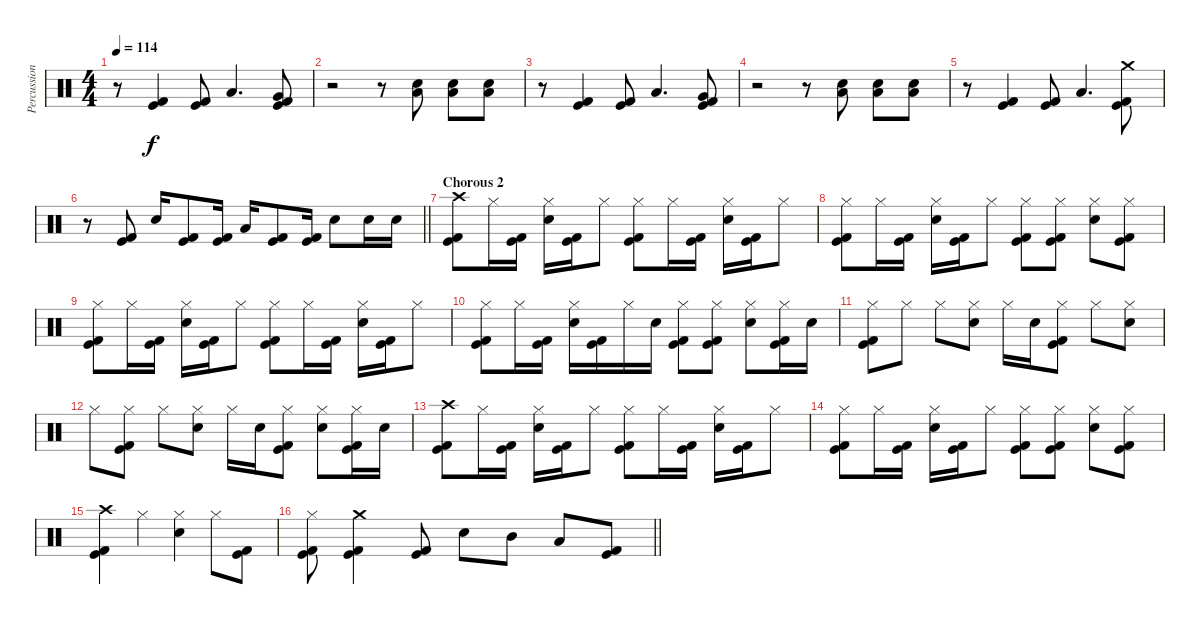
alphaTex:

\track ("Percussion" "Percussion") {instrument percussion}
\staff {score}
\articulation defaults
\ts (4 4)
\tempo 114
\clef neutral
\ks c
r.8{dy f} ("Kick (hit)" "Kick (hit) 2").4 ("Kick (hit)" "Kick (hit) 2").8 "Low Tom (hit)".4{d} ("Very Low Tom (hit)" "Kick (hit)" "Kick (hit) 2").8 |
r.2 r.8 ("Electric Snare (hit)" "Low Floor Tom (hit)").8 ("Electric Snare (hit)" "Low Floor Tom (hit)").8 ("Electric Snare (hit)" "Low Floor Tom (hit)").8 |
r.8 ("Kick (hit)" "Kick (hit) 2").4 ("Kick (hit)" "Kick (hit) 2").8 "Low Tom (hit)".4{d} ("Very Low Tom (hit)" "Kick (hit)" "Kick (hit) 2").8 |
r.2 r.8 ("Electric Snare (hit)" "Low Floor Tom (hit)").8 ("Electric Snare (hit)" "Low Floor Tom (hit)").8 ("Electric Snare (hit)" "Low Floor Tom (hit)").8 |
r.8 ("Kick (hit)" "Kick (hit) 2").4 ("Kick (hit)" "Kick (hit) 2").8 "Low Tom (hit)".4{d} ("Crash medium (hit)" "Kick (hit)" "Kick (hit) 2").8 |
\barLineRight lightlight
r.8 ("Kick (hit)" "Kick (hit) 2").8 "Electric Snare (hit)".16 ("Kick (hit)" "Kick (hit) 2").8 ("Kick (hit)" "Kick (hit) 2").16 "Low Tom (hit)".16 ("Kick (hit)" "Kick (hit) 2").8 ("Kick (hit)" "Kick (hit) 2").16 "Electric Snare (hit)".8 "Electric Snare (hit)".16 "Electric Snare (hit)".16 |
\section ("" "Chorous 2")
("Crash high (hit)" "Kick (hit)" "Kick (hit) 2").8 "Hi-Hat (closed)".16 ("Kick (hit)" "Kick (hit) 2").16 ("Hi-Hat (closed)" "Electric Snare (hit)").16 ("Kick (hit)" "Kick (hit) 2").16 "Hi-Hat (closed)".8 ("Hi-Hat (closed)" "Kick (hit)" "Kick (hit) 2").8 "Hi-Hat (closed)".16 ("Kick (hit)" "Kick (hit) 2").16 ("Hi-Hat (closed)" "Electric Snare (hit)").16 ("Kick (hit)" "Kick (hit) 2").16 "Hi-Hat (closed)".8 |
("Hi-Hat (closed)" "Kick (hit)" "Kick (hit) 2").8 "Hi-Hat (closed)".16 ("Kick (hit)" "Kick (hit) 2").16 ("Hi-Hat (closed)" "Electric Snare (hit)").16 ("Kick (hit)" "Kick (hit) 2").16 "Hi-Hat (closed)".8 ("Hi-Hat (closed)" "Kick (hit)" "Kick (hit) 2").8 ("Hi-Hat (closed)" "Kick (hit)" "Kick (hit) 2").8 ("Hi-Hat (closed)" "Electric Snare (hit)").8 ("Hi-Hat (closed)" "Kick (hit)" "Kick (hit) 2").8 |
("Hi-Hat (closed)" "Kick (hit)" "Kick (hit) 2").8 "Hi-Hat (closed)".16 ("Kick (hit)" "Kick (hit) 2").16 ("Hi-Hat (closed)" "Electric Snare (hit)").16 ("Kick (hit)" "Kick (hit) 2").16 "Hi-Hat (closed)".8 ("Hi-Hat (closed)" "Kick (hit)" "Kick (hit) 2").8 "Hi-Hat (closed)".16 ("Kick (hit)" "Kick (hit) 2").16 ("Hi-Hat (closed)" "Electric Snare (hit)").16 ("Kick (hit)" "Kick (hit) 2").16 "Hi-Hat (closed)".8 |
("Hi-Hat (closed)" "Kick (hit)" "Kick (hit) 2").8 "Hi-Hat (closed)".16 ("Kick (hit)" "Kick (hit) 2").16 ("Hi-Hat (closed)" "Electric Snare (hit)").16 ("Kick (hit)" "Kick (hit) 2").16 "Hi-Hat (closed)".16 "Electric Snare (hit)".16 ("Hi-Hat (closed)" "Kick (hit)" "Kick (hit) 2").8 ("Hi-Hat (closed)" "Kick (hit)" "Kick (hit) 2").8 ("Hi-Hat (closed)" "Electric Snare (hit)").8 ("Hi-Hat (closed)" "Kick (hit)" "Kick (hit) 2").16 "Electric Snare (hit)".16 |
("Hi-Hat (closed)" "Kick (hit)" "Kick (hit) 2").8 "Hi-Hat (closed)".8 "Hi-Hat (closed)".8 ("Hi-Hat (closed)" "Electric Snare (hit)").8 "Hi-Hat (closed)".16 "Electric Snare (hit)".16 ("Hi-Hat (closed)" "Kick (hit)" "Kick (hit) 2").8 "Hi-Hat (closed)".8 ("Hi-Hat (closed)" "Electric Snare (hit)").8 |
"Hi-Hat (closed)".8 ("Hi-Hat (closed)" "Kick (hit)" "Kick (hit) 2").8 "Hi-Hat (closed)".8 ("Hi-Hat (closed)" "Electric Snare (hit)").8 "Hi-Hat (closed)".16 "Electric Snare (hit)".16 ("Hi-Hat (closed)" "Kick (hit)" "Kick (hit) 2").8 ("Hi-Hat (closed)" "Electric Snare (hit)").8 ("Hi-Hat (closed)" "Kick (hit)" "Kick (hit) 2").16 "Electric Snare (hit)".16 |
("Crash high (hit)" "Kick (hit)" "Kick (hit) 2").8 "Hi-Hat (closed)".16 ("Kick (hit)" "Kick (hit) 2").16 ("Hi-Hat (closed)" "Electric Snare (hit)").16 ("Kick (hit)" "Kick (hit) 2").16 "Hi-Hat (closed)".8 ("Hi-Hat (closed)" "Kick (hit)" "Kick (hit) 2").8 "Hi-Hat (closed)".16 ("Kick (hit)" "Kick (hit) 2").16 ("Hi-Hat (closed)" "Electric Snare (hit)").16 ("Kick (hit)" "Kick (hit) 2").16 "Hi-Hat (closed)".8 |
("Hi-Hat (closed)" "Kick (hit)" "Kick (hit) 2").8 "Hi-Hat (closed)".16 ("Kick (hit)" "Kick (hit) 2").16 ("Hi-Hat (closed)" "Electric Snare (hit)").16 ("Kick (hit)" "Kick (hit) 2").16 "Hi-Hat (closed)".8 ("Hi-Hat (closed)" "Kick (hit)" "Kick (hit) 2").8 ("Hi-Hat (closed)" "Kick (hit)" "Kick (hit) 2").8 ("Hi-Hat (closed)" "Electric Snare (hit)").8 ("Hi-Hat (closed)" "Kick (hit)" "Kick (hit) 2").8 |
("Crash high (hit)" "Kick (hit)" "Kick (hit) 2").4 "Hi-Hat (closed)".4 ("Hi-Hat (closed)" "Electric Snare (hit)").4 "Hi-Hat (closed)".8 ("Kick (hit)" "Kick (hit) 2").8 |
\barLineRight lightlight
("Hi-Hat (closed)" "Kick (hit)" "Kick (hit) 2").8 ("Crash medium (hit)" "Kick (hit)" "Kick (hit) 2").4 ("Kick (hit)" "Kick (hit) 2").8 "Electric Snare (hit)".8 "Mid Tom (hit)".8 "Low Tom (hit)".8 ("Kick (hit)" "Kick (hit) 2").8
